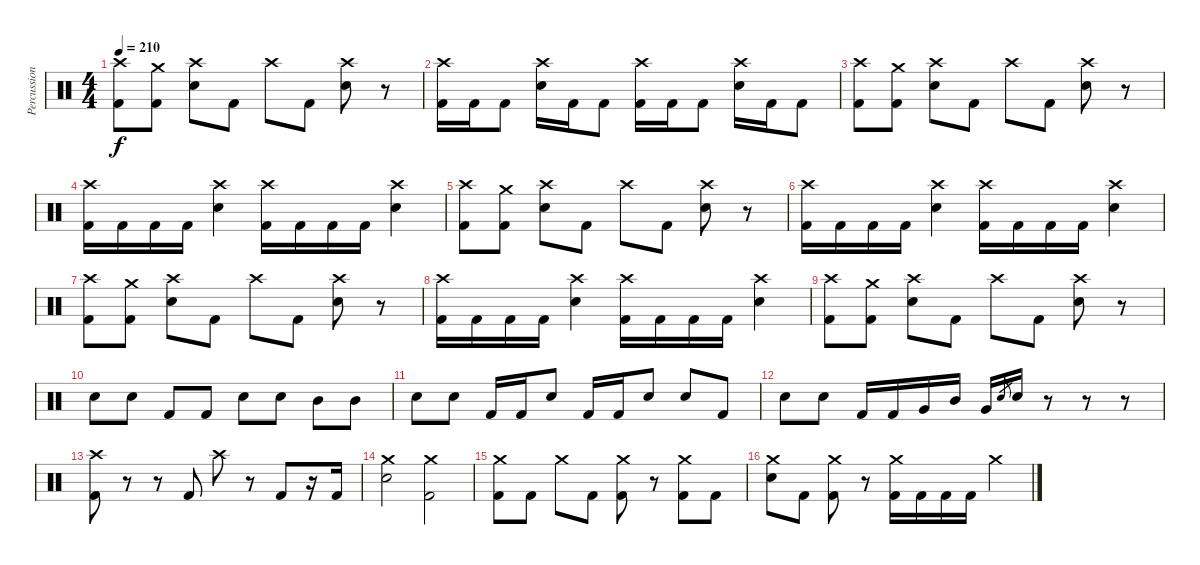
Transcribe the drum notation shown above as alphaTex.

\track ("Percussions" "Percussion") {instrument percussion}
\staff {score}
\articulation defaults
\ts (4 4)
\tempo 210
\clef neutral
\ks c
("Kick (hit) 2" "Crash high (hit)").8{dy f} ("Kick (hit) 2" "Crash medium (hit)").8 ("Electric Snare (hit)" "Crash high (hit)").8 "Kick (hit) 2".8 "Crash high (hit)".8 "Kick (hit) 2".8 ("Electric Snare (hit)" "Crash high (hit)").8 r.8 |
("Kick (hit) 2" "Crash high (hit)").16 "Kick (hit) 2".16 "Kick (hit) 2".8 ("Electric Snare (hit)" "Crash high (hit)").16 "Kick (hit) 2".16 "Kick (hit) 2".8 ("Kick (hit) 2" "Crash high (hit)").16 "Kick (hit) 2".16 "Kick (hit) 2".8 ("Electric Snare (hit)" "Crash high (hit)").16 "Kick (hit) 2".16 "Kick (hit) 2".8 |
("Kick (hit) 2" "Crash high (hit)").8 ("Kick (hit) 2" "Crash medium (hit)").8 ("Electric Snare (hit)" "Crash high (hit)").8 "Kick (hit) 2".8 "Crash high (hit)".8 "Kick (hit) 2".8 ("Electric Snare (hit)" "Crash high (hit)").8 r.8 |
("Kick (hit) 2" "Crash high (hit)").16 "Kick (hit) 2".16 "Kick (hit) 2".16 "Kick (hit) 2".16 ("Electric Snare (hit)" "Crash high (hit)").4 ("Kick (hit) 2" "Crash high (hit)").16 "Kick (hit) 2".16 "Kick (hit) 2".16 "Kick (hit) 2".16 ("Electric Snare (hit)" "Crash high (hit)").4 |
("Kick (hit) 2" "Crash high (hit)").8 ("Kick (hit) 2" "Crash medium (hit)").8 ("Electric Snare (hit)" "Crash high (hit)").8 "Kick (hit) 2".8 "Crash high (hit)".8 "Kick (hit) 2".8 ("Electric Snare (hit)" "Crash high (hit)").8 r.8 |
("Kick (hit) 2" "Crash high (hit)").16 "Kick (hit) 2".16 "Kick (hit) 2".16 "Kick (hit) 2".16 ("Electric Snare (hit)" "Crash high (hit)").4 ("Kick (hit) 2" "Crash high (hit)").16 "Kick (hit) 2".16 "Kick (hit) 2".16 "Kick (hit) 2".16 ("Electric Snare (hit)" "Crash high (hit)").4 |
("Kick (hit) 2" "Crash high (hit)").8 ("Kick (hit) 2" "Crash medium (hit)").8 ("Electric Snare (hit)" "Crash high (hit)").8 "Kick (hit) 2".8 "Crash high (hit)".8 "Kick (hit) 2".8 ("Electric Snare (hit)" "Crash high (hit)").8 r.8 |
("Kick (hit) 2" "Crash high (hit)").16 "Kick (hit) 2".16 "Kick (hit) 2".16 "Kick (hit) 2".16 ("Electric Snare (hit)" "Crash high (hit)").4 ("Kick (hit) 2" "Crash high (hit)").16 "Kick (hit) 2".16 "Kick (hit) 2".16 "Kick (hit) 2".16 ("Electric Snare (hit)" "Crash high (hit)").4 |
("Kick (hit) 2" "Crash high (hit)").8 ("Kick (hit) 2" "Crash medium (hit)").8 ("Electric Snare (hit)" "Crash high (hit)").8 "Kick (hit) 2".8 "Crash high (hit)".8 "Kick (hit) 2".8 ("Electric Snare (hit)" "Crash high (hit)").8 r.8 |
"Electric Snare (hit)".8 "Electric Snare (hit)".8 "Kick (hit) 2".8 "Kick (hit) 2".8 "Electric Snare (hit)".8 "Electric Snare (hit)".8 "Mid Tom (hit)".8 "Mid Tom (hit)".8 |
"Electric Snare (hit)".8 "Electric Snare (hit)".8 "Kick (hit) 2".16 "Kick (hit) 2".16 "Electric Snare (hit)".8 "Kick (hit) 2".16 "Kick (hit) 2".16 "Electric Snare (hit)".8 "Electric Snare (hit)".8 "Kick (hit) 2".8 |
"Electric Snare (hit)".8 "Electric Snare (hit)".8 "Kick (hit) 2".16 "Kick (hit) 2".16 "Very Low Tom (hit)".16 "Mid Tom (hit)".16 "Very Low Tom (hit)".16 "Electric Snare (hit)".8{gr} "Electric Snare (hit)".16 r.8 r.8 r.8 |
("Kick (hit) 2" "Crash high (hit)").8 r.8 r.8 "Kick (hit) 2".8 "Crash high (hit)".8 r.8 "Kick (hit) 2".8 r.16 "Kick (hit) 2".16 |
("Electric Snare (hit)" "Crash medium (hit)").2 ("Kick (hit) 2" "Crash medium (hit)").2 |
("Kick (hit) 2" "Crash medium (hit)").8 "Kick (hit) 2".8 "Crash medium (hit)".8 "Kick (hit) 2".8 ("Kick (hit) 2" "Crash medium (hit)").8 r.8 ("Kick (hit) 2" "Crash medium (hit)").8 "Kick (hit) 2".8 |
("Electric Snare (hit)" "Crash medium (hit)").8 "Kick (hit) 2".8 ("Kick (hit) 2" "Crash medium (hit)").8 r.8 ("Kick (hit) 2" "Crash medium (hit)").16 "Kick (hit) 2".16 "Kick (hit) 2".16 "Kick (hit) 2".16 "Crash medium (hit)".4
